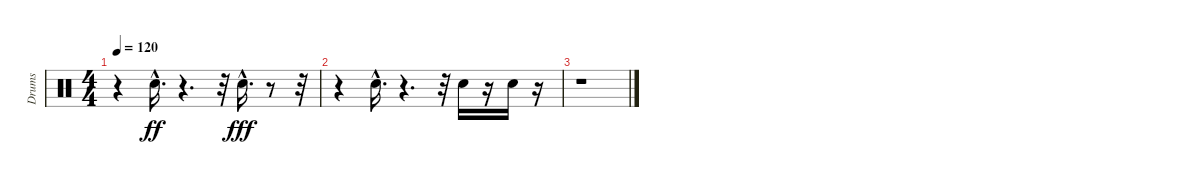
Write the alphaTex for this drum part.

\track ("Drums" "Drums") {instrument percussion}
\staff {score}
\articulation defaults
\ts (4 4)
\tempo 120
\clef neutral
\ks c
r.4{dy fff} "Electric Snare (hit)"{hac}.16{d dy ff} r.4{d} r.32 "Electric Snare (hit)"{hac}.16{d dy fff} r.8 r.32 |
r.4 "Electric Snare (hit)"{hac}.16{d} r.4{d} r.32 "Electric Snare (hit)".16 r.16 "Electric Snare (hit)".16 r.16 |
r.1
